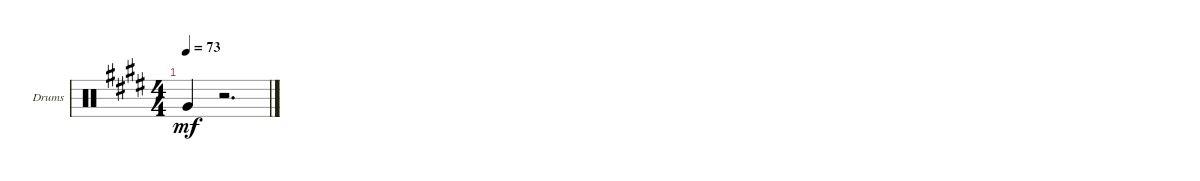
\defaultSystemsLayout 4
\bracketExtendMode groupsimilarinstruments
\firstSystemTrackNameOrientation horizontal
\otherSystemsTrackNameOrientation horizontal
\track ("Drumkit" "Drums") {instrument percussion}
\staff {score}
\articulation defaults
\ts (4 4)
\tempo 73
\clef neutral
\ks e "Very Low Tom (hit)".4{dy mf}
r.2{d}
